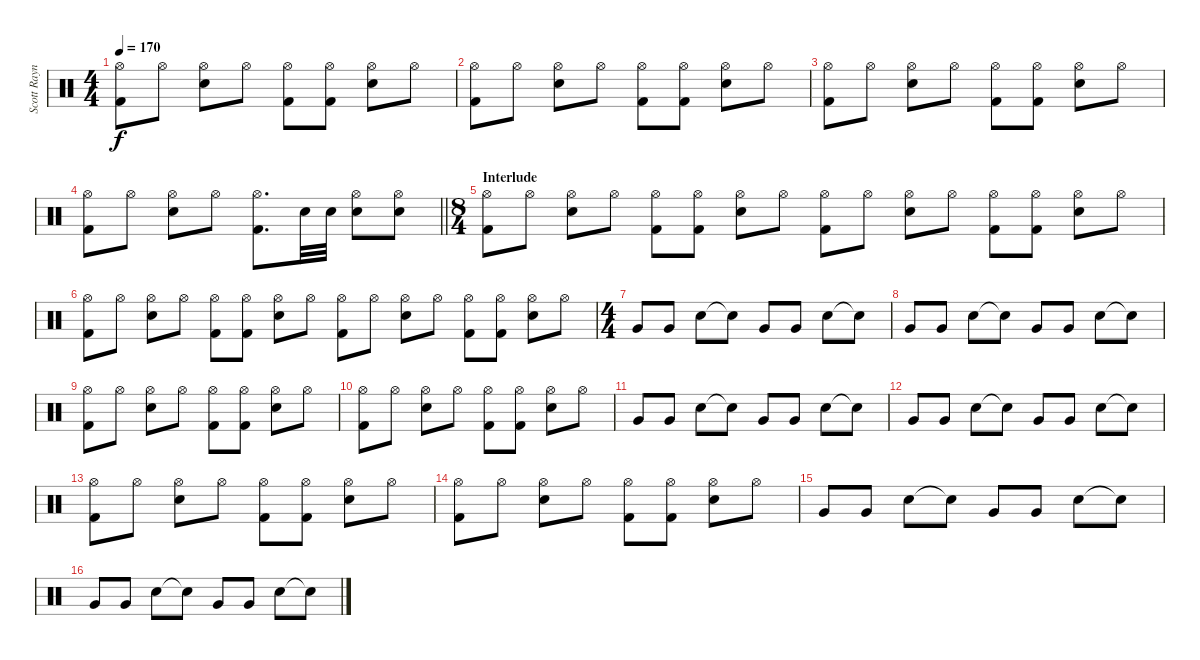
\track ("Scott Raynor" "Scott Rayn") {instrument percussion}
\staff {score}
\articulation defaults
\ts (4 4)
\tempo 170
\clef neutral
\ks c
("Hi-Hat (open)" "Kick (hit) 2").8{dy f} "Hi-Hat (open)".8 ("Hi-Hat (open)" "Snare (hit) 2").8 "Hi-Hat (open)".8 ("Hi-Hat (open)" "Kick (hit) 2").8 ("Hi-Hat (open)" "Kick (hit) 2").8 ("Hi-Hat (open)" "Snare (hit) 2").8 "Hi-Hat (open)".8 |
("Hi-Hat (open)" "Kick (hit) 2").8 "Hi-Hat (open)".8 ("Hi-Hat (open)" "Snare (hit) 2").8 "Hi-Hat (open)".8 ("Hi-Hat (open)" "Kick (hit) 2").8 ("Hi-Hat (open)" "Kick (hit) 2").8 ("Hi-Hat (open)" "Snare (hit) 2").8 "Hi-Hat (open)".8 |
("Hi-Hat (open)" "Kick (hit) 2").8 "Hi-Hat (open)".8 ("Hi-Hat (open)" "Snare (hit) 2").8 "Hi-Hat (open)".8 ("Hi-Hat (open)" "Kick (hit) 2").8 ("Hi-Hat (open)" "Kick (hit) 2").8 ("Hi-Hat (open)" "Snare (hit) 2").8 "Hi-Hat (open)".8 |
\barLineRight lightlight
("Hi-Hat (open)" "Kick (hit) 2").8 "Hi-Hat (open)".8 ("Hi-Hat (open)" "Snare (hit) 2").8 "Hi-Hat (open)".8 ("Hi-Hat (open)" "Kick (hit) 2").8{d} "Snare (hit) 2".32 "Snare (hit) 2".32 ("Hi-Hat (open)" "Snare (hit) 2").8 ("Hi-Hat (open)" "Snare (hit) 2").8 |
\ts (8 4)
\section ("" "Interlude")
("Hi-Hat (open)" "Kick (hit) 2").8 "Hi-Hat (open)".8 ("Hi-Hat (open)" "Snare (hit) 2").8 "Hi-Hat (open)".8 ("Hi-Hat (open)" "Kick (hit) 2").8 ("Hi-Hat (open)" "Kick (hit) 2").8 ("Hi-Hat (open)" "Snare (hit) 2").8 "Hi-Hat (open)".8 ("Hi-Hat (open)" "Kick (hit) 2").8 "Hi-Hat (open)".8 ("Hi-Hat (open)" "Snare (hit) 2").8 "Hi-Hat (open)".8 ("Hi-Hat (open)" "Kick (hit) 2").8 ("Hi-Hat (open)" "Kick (hit) 2").8 ("Hi-Hat (open)" "Snare (hit) 2").8 "Hi-Hat (open)".8 |
("Hi-Hat (open)" "Kick (hit) 2").8 "Hi-Hat (open)".8 ("Hi-Hat (open)" "Snare (hit) 2").8 "Hi-Hat (open)".8 ("Hi-Hat (open)" "Kick (hit) 2").8 ("Hi-Hat (open)" "Kick (hit) 2").8 ("Hi-Hat (open)" "Snare (hit) 2").8 "Hi-Hat (open)".8 ("Hi-Hat (open)" "Kick (hit) 2").8 "Hi-Hat (open)".8 ("Hi-Hat (open)" "Snare (hit) 2").8 "Hi-Hat (open)".8 ("Hi-Hat (open)" "Kick (hit) 2").8 ("Hi-Hat (open)" "Kick (hit) 2").8 ("Hi-Hat (open)" "Snare (hit) 2").8 "Hi-Hat (open)".8 |
\ts (4 4)
"Very Low Tom (hit)".8 "Very Low Tom (hit)".8 "Snare (hit) 2".8 "Snare (hit)"{t}.8 "Very Low Tom (hit)".8 "Very Low Tom (hit)".8 "Snare (hit) 2".8 "Snare (hit)"{t}.8 |
"Very Low Tom (hit)".8 "Very Low Tom (hit)".8 "Snare (hit) 2".8 "Snare (hit)"{t}.8 "Very Low Tom (hit)".8 "Very Low Tom (hit)".8 "Snare (hit) 2".8 "Snare (hit)"{t}.8 |
("Hi-Hat (open)" "Kick (hit) 2").8 "Hi-Hat (open)".8 ("Hi-Hat (open)" "Snare (hit) 2").8 "Hi-Hat (open)".8 ("Hi-Hat (open)" "Kick (hit) 2").8 ("Hi-Hat (open)" "Kick (hit) 2").8 ("Hi-Hat (open)" "Snare (hit) 2").8 "Hi-Hat (open)".8 |
("Hi-Hat (open)" "Kick (hit) 2").8 "Hi-Hat (open)".8 ("Hi-Hat (open)" "Snare (hit) 2").8 "Hi-Hat (open)".8 ("Hi-Hat (open)" "Kick (hit) 2").8 ("Hi-Hat (open)" "Kick (hit) 2").8 ("Hi-Hat (open)" "Snare (hit) 2").8 "Hi-Hat (open)".8 |
"Very Low Tom (hit)".8 "Very Low Tom (hit)".8 "Snare (hit) 2".8 "Snare (hit)"{t}.8 "Very Low Tom (hit)".8 "Very Low Tom (hit)".8 "Snare (hit) 2".8 "Snare (hit)"{t}.8 |
"Very Low Tom (hit)".8 "Very Low Tom (hit)".8 "Snare (hit) 2".8 "Snare (hit)"{t}.8 "Very Low Tom (hit)".8 "Very Low Tom (hit)".8 "Snare (hit) 2".8 "Snare (hit)"{t}.8 |
("Hi-Hat (open)" "Kick (hit) 2").8 "Hi-Hat (open)".8 ("Hi-Hat (open)" "Snare (hit) 2").8 "Hi-Hat (open)".8 ("Hi-Hat (open)" "Kick (hit) 2").8 ("Hi-Hat (open)" "Kick (hit) 2").8 ("Hi-Hat (open)" "Snare (hit) 2").8 "Hi-Hat (open)".8 |
("Hi-Hat (open)" "Kick (hit) 2").8 "Hi-Hat (open)".8 ("Hi-Hat (open)" "Snare (hit) 2").8 "Hi-Hat (open)".8 ("Hi-Hat (open)" "Kick (hit) 2").8 ("Hi-Hat (open)" "Kick (hit) 2").8 ("Hi-Hat (open)" "Snare (hit) 2").8 "Hi-Hat (open)".8 |
"Very Low Tom (hit)".8 "Very Low Tom (hit)".8 "Snare (hit) 2".8 "Snare (hit)"{t}.8 "Very Low Tom (hit)".8 "Very Low Tom (hit)".8 "Snare (hit) 2".8 "Snare (hit)"{t}.8 |
"Very Low Tom (hit)".8 "Very Low Tom (hit)".8 "Snare (hit) 2".8 "Snare (hit)"{t}.8 "Very Low Tom (hit)".8 "Very Low Tom (hit)".8 "Snare (hit) 2".8 "Snare (hit)"{t}.8
